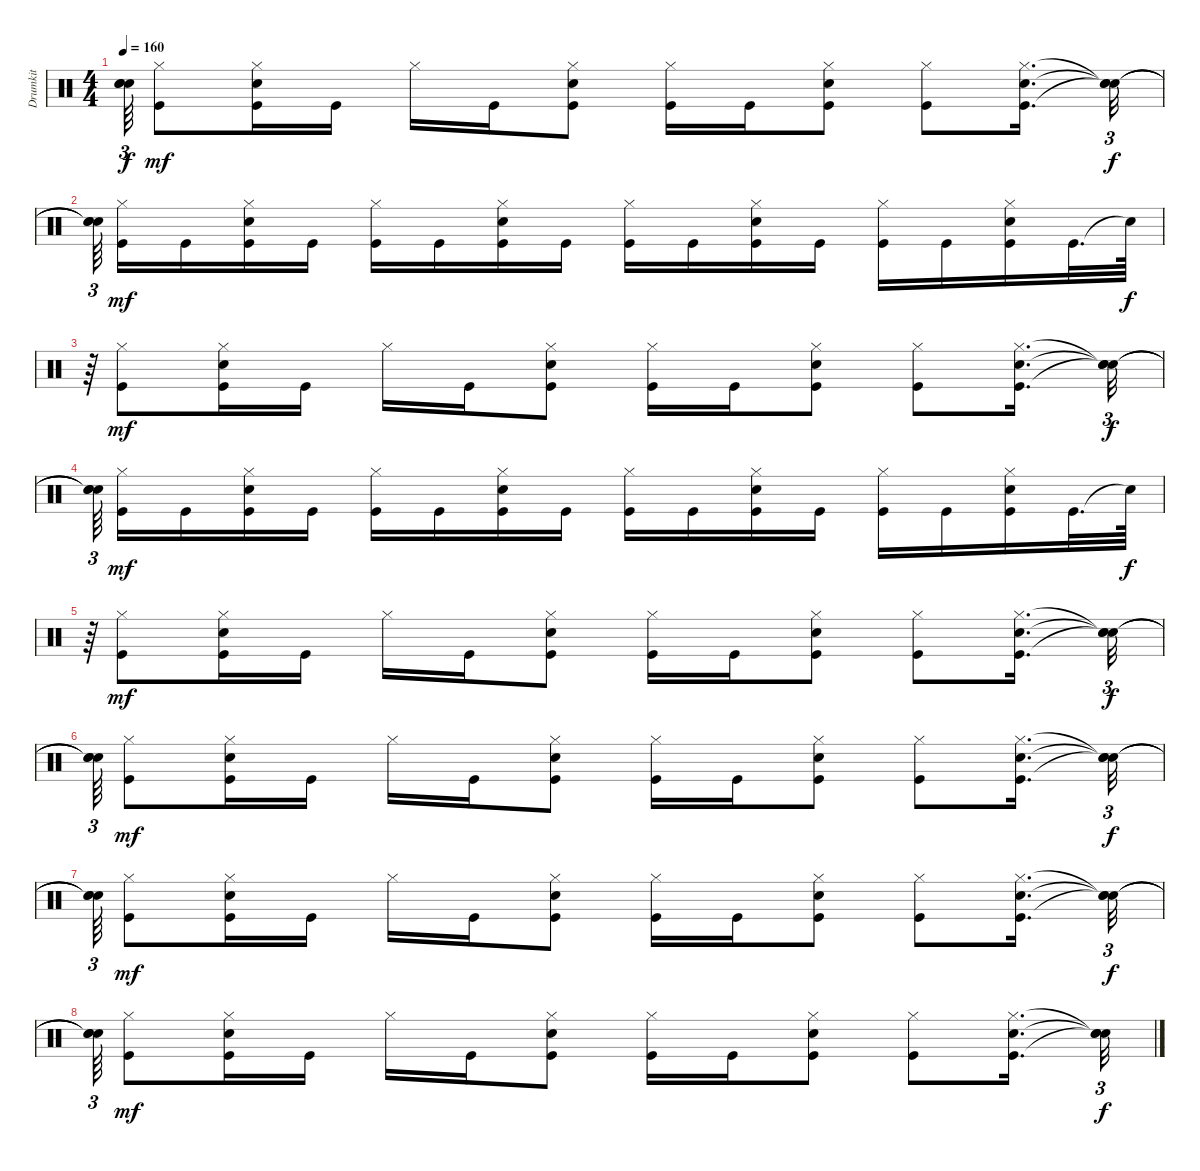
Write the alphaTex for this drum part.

\track ("Drumkit" "Drumkit") {instrument percussion}
\staff {score}
\articulation defaults
\ts (4 4)
\tempo 160
\clef neutral
\ks c
("Snare (hit)"{t} "Snare (hit)"{t} "Snare (hit)"{t}).64{tu (3 2) dy f} ("Kick (hit)" "Hi-Hat (closed)").8{dy mf} ("Kick (hit)" "Snare (hit) 2" "Hi-Hat (closed)").16 "Kick (hit)".16 "Hi-Hat (closed)".16 "Kick (hit)".16 ("Kick (hit)" "Snare (hit) 2" "Hi-Hat (closed)").8 ("Kick (hit)" "Hi-Hat (closed)").16 "Kick (hit)".16 ("Kick (hit)" "Snare (hit) 2" "Hi-Hat (closed)").8 ("Kick (hit)" "Hi-Hat (closed)").8 ("Kick (hit)" "Snare (hit) 2" "Hi-Hat (closed)").16{d} ("Snare (hit)"{t} "Snare (hit)"{t} "Snare (hit)"{t}).32{tu (3 2) dy f} |
("Snare (hit)"{t} "Snare (hit)"{t} "Snare (hit)"{t}).64{tu (3 2) beam splitsecondary} ("Kick (hit)" "Hi-Hat (closed)").16{dy mf} "Kick (hit)".16 ("Kick (hit)" "Snare (hit) 2" "Hi-Hat (closed)").16 "Kick (hit)".16 ("Kick (hit)" "Hi-Hat (closed)").16 "Kick (hit)".16 ("Kick (hit)" "Snare (hit) 2" "Hi-Hat (closed)").16 "Kick (hit)".16 ("Kick (hit)" "Hi-Hat (closed)").16 "Kick (hit)".16 ("Kick (hit)" "Snare (hit) 2" "Hi-Hat (closed)").16 "Kick (hit)".16 ("Kick (hit)" "Hi-Hat (closed)").16 "Kick (hit)".16 ("Kick (hit)" "Snare (hit) 2" "Hi-Hat (closed)").16 "Kick (hit)".32{d} "Snare (hit)"{t}.64{dy f} |
r.64{tu (3 2)} ("Kick (hit)" "Hi-Hat (closed)").8{dy mf} ("Kick (hit)" "Snare (hit) 2" "Hi-Hat (closed)").16 "Kick (hit)".16 "Hi-Hat (closed)".16 "Kick (hit)".16 ("Kick (hit)" "Snare (hit) 2" "Hi-Hat (closed)").8 ("Kick (hit)" "Hi-Hat (closed)").16 "Kick (hit)".16 ("Kick (hit)" "Snare (hit) 2" "Hi-Hat (closed)").8 ("Kick (hit)" "Hi-Hat (closed)").8 ("Kick (hit)" "Snare (hit) 2" "Hi-Hat (closed)").16{d} ("Snare (hit)"{t} "Snare (hit)"{t} "Snare (hit)"{t}).32{tu (3 2) dy f} |
("Snare (hit)"{t} "Snare (hit)"{t} "Snare (hit)"{t}).64{tu (3 2) beam splitsecondary} ("Kick (hit)" "Hi-Hat (closed)").16{dy mf} "Kick (hit)".16 ("Kick (hit)" "Snare (hit) 2" "Hi-Hat (closed)").16 "Kick (hit)".16 ("Kick (hit)" "Hi-Hat (closed)").16 "Kick (hit)".16 ("Kick (hit)" "Snare (hit) 2" "Hi-Hat (closed)").16 "Kick (hit)".16 ("Kick (hit)" "Hi-Hat (closed)").16 "Kick (hit)".16 ("Kick (hit)" "Snare (hit) 2" "Hi-Hat (closed)").16 "Kick (hit)".16 ("Kick (hit)" "Hi-Hat (closed)").16 "Kick (hit)".16 ("Kick (hit)" "Snare (hit) 2" "Hi-Hat (closed)").16 "Kick (hit)".32{d} "Snare (hit)"{t}.64{dy f} |
r.64{tu (3 2)} ("Kick (hit)" "Hi-Hat (closed)").8{dy mf} ("Kick (hit)" "Snare (hit) 2" "Hi-Hat (closed)").16 "Kick (hit)".16 "Hi-Hat (closed)".16 "Kick (hit)".16 ("Kick (hit)" "Snare (hit) 2" "Hi-Hat (closed)").8 ("Kick (hit)" "Hi-Hat (closed)").16 "Kick (hit)".16 ("Kick (hit)" "Snare (hit) 2" "Hi-Hat (closed)").8 ("Kick (hit)" "Hi-Hat (closed)").8 ("Kick (hit)" "Snare (hit) 2" "Hi-Hat (closed)").16{d} ("Snare (hit)"{t} "Snare (hit)"{t} "Snare (hit)"{t}).32{tu (3 2) dy f} |
("Snare (hit)"{t} "Snare (hit)"{t} "Snare (hit)"{t}).64{tu (3 2)} ("Kick (hit)" "Hi-Hat (closed)").8{dy mf} ("Kick (hit)" "Snare (hit) 2" "Hi-Hat (closed)").16 "Kick (hit)".16 "Hi-Hat (closed)".16 "Kick (hit)".16 ("Kick (hit)" "Snare (hit) 2" "Hi-Hat (closed)").8 ("Kick (hit)" "Hi-Hat (closed)").16 "Kick (hit)".16 ("Kick (hit)" "Snare (hit) 2" "Hi-Hat (closed)").8 ("Kick (hit)" "Hi-Hat (closed)").8 ("Kick (hit)" "Snare (hit) 2" "Hi-Hat (closed)").16{d} ("Snare (hit)"{t} "Snare (hit)"{t} "Snare (hit)"{t}).32{tu (3 2) dy f} |
("Snare (hit)"{t} "Snare (hit)"{t} "Snare (hit)"{t}).64{tu (3 2)} ("Kick (hit)" "Hi-Hat (closed)").8{dy mf} ("Kick (hit)" "Snare (hit) 2" "Hi-Hat (closed)").16 "Kick (hit)".16 "Hi-Hat (closed)".16 "Kick (hit)".16 ("Kick (hit)" "Snare (hit) 2" "Hi-Hat (closed)").8 ("Kick (hit)" "Hi-Hat (closed)").16 "Kick (hit)".16 ("Kick (hit)" "Snare (hit) 2" "Hi-Hat (closed)").8 ("Kick (hit)" "Hi-Hat (closed)").8 ("Kick (hit)" "Snare (hit) 2" "Hi-Hat (closed)").16{d} ("Snare (hit)"{t} "Snare (hit)"{t} "Snare (hit)"{t}).32{tu (3 2) dy f} |
("Snare (hit)"{t} "Snare (hit)"{t} "Snare (hit)"{t}).64{tu (3 2)} ("Kick (hit)" "Hi-Hat (closed)").8{dy mf} ("Kick (hit)" "Snare (hit) 2" "Hi-Hat (closed)").16 "Kick (hit)".16 "Hi-Hat (closed)".16 "Kick (hit)".16 ("Kick (hit)" "Snare (hit) 2" "Hi-Hat (closed)").8 ("Kick (hit)" "Hi-Hat (closed)").16 "Kick (hit)".16 ("Kick (hit)" "Snare (hit) 2" "Hi-Hat (closed)").8 ("Kick (hit)" "Hi-Hat (closed)").8 ("Kick (hit)" "Snare (hit) 2" "Hi-Hat (closed)").16{d} ("Snare (hit)"{t} "Snare (hit)"{t} "Snare (hit)"{t}).32{tu (3 2) dy f}
